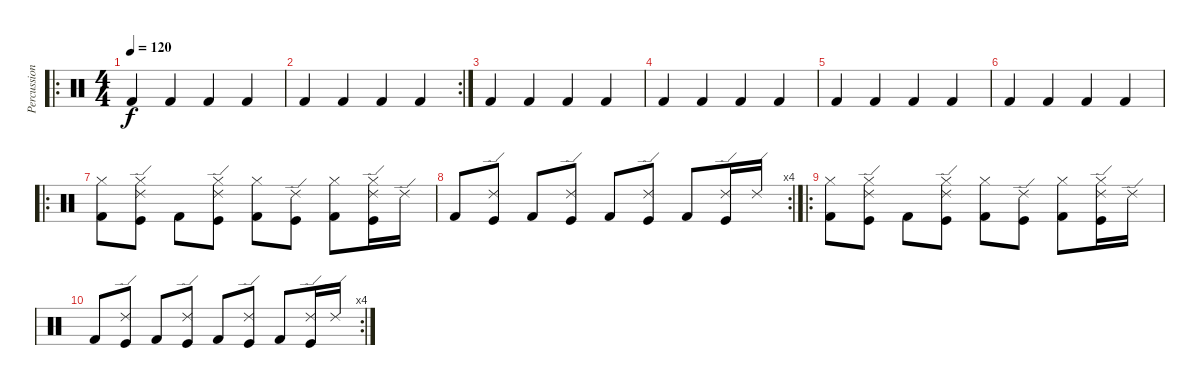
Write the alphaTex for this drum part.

\track ("Percussions" "Percussion") {instrument percussion}
\staff {score}
\articulation defaults
\ro
\ts (4 4)
\tempo 120
\clef neutral
\ks c "Kick (hit) 2".4{dy f} "Kick (hit) 2".4 "Kick (hit) 2".4 "Kick (hit) 2".4
|
\rc 2 "Kick (hit) 2".4 "Kick (hit) 2".4 "Kick (hit) 2".4 "Kick (hit) 2".4
|
"Kick (hit) 2".4 "Kick (hit) 2".4 "Kick (hit) 2".4 "Kick (hit) 2".4 |
"Kick (hit) 2".4 "Kick (hit) 2".4 "Kick (hit) 2".4 "Kick (hit) 2".4 |
"Kick (hit) 2".4 "Kick (hit) 2".4 "Kick (hit) 2".4 "Kick (hit) 2".4 |
"Kick (hit) 2".4 "Kick (hit) 2".4 "Kick (hit) 2".4 "Kick (hit) 2".4 |
\ro
("Kick (hit) 2" "Hi-Hat (closed)").8 ("Ride (edge) 2" "Kick (hit)" "Hi-Hat (closed)").8 "Kick (hit) 2".8 ("Ride (edge) 2" "Kick (hit)" "Hi-Hat (closed)").8 ("Kick (hit) 2" "Hi-Hat (closed)").8 ("Ride (edge) 2" "Kick (hit)").8 ("Kick (hit) 2" "Hi-Hat (closed)").8 ("Ride (edge) 2" "Kick (hit)" "Hi-Hat (closed)").16 "Ride (edge) 2".16 |
\rc 4 "Kick (hit) 2".8
("Ride (edge) 2" "Kick (hit)").8 "Kick (hit) 2".8 ("Ride (edge) 2" "Kick (hit)").8 "Kick (hit) 2".8 ("Ride (edge) 2" "Kick (hit)").8 "Kick (hit) 2".8 ("Ride (edge) 2" "Kick (hit)").16 "Ride (edge) 2".16 |
\ro
("Kick (hit) 2" "Hi-Hat (closed)").8 ("Ride (edge) 2" "Kick (hit)" "Hi-Hat (closed)").8 "Kick (hit) 2".8 ("Ride (edge) 2" "Kick (hit)" "Hi-Hat (closed)").8 ("Kick (hit) 2" "Hi-Hat (closed)").8 ("Ride (edge) 2" "Kick (hit)").8 ("Kick (hit) 2" "Hi-Hat (closed)").8 ("Ride (edge) 2" "Kick (hit)" "Hi-Hat (closed)").16 "Ride (edge) 2".16 |
\rc 4 "Kick (hit) 2".8
("Ride (edge) 2" "Kick (hit)").8 "Kick (hit) 2".8 ("Ride (edge) 2" "Kick (hit)").8 "Kick (hit) 2".8 ("Ride (edge) 2" "Kick (hit)").8 "Kick (hit) 2".8 ("Ride (edge) 2" "Kick (hit)").16 "Ride (edge) 2".16
